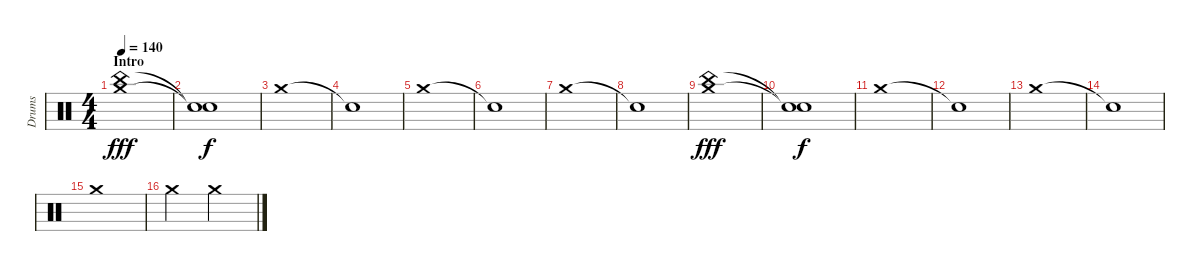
\track ("Drums" "Drums") {instrument percussion}
\staff {score}
\articulation defaults
\ts (4 4)
\section ("" "Intro")
\tempo 140
\tempo 100
\tempo 140
\clef neutral
\ks c
("China (hit)" "Crash medium (hit)").1{dy fff} |
("Snare (hit)"{t} "Snare (hit)"{t}).1{dy f} |
"Crash medium (hit)".1 |
"Snare (hit)"{t}.1 |
"Crash medium (hit)".1 |
"Snare (hit)"{t}.1 |
"Crash medium (hit)".1 |
"Snare (hit)"{t}.1 |
("China (hit)" "Crash medium (hit)").1{dy fff} |
("Snare (hit)"{t} "Snare (hit)"{t}).1{dy f} |
"Crash medium (hit)".1 |
"Snare (hit)"{t}.1 |
"Crash medium (hit)".1 |
"Snare (hit)"{t}.1 |
"Crash medium (hit)".1 |
"Crash medium (hit)".2 "Crash medium (hit)".2
